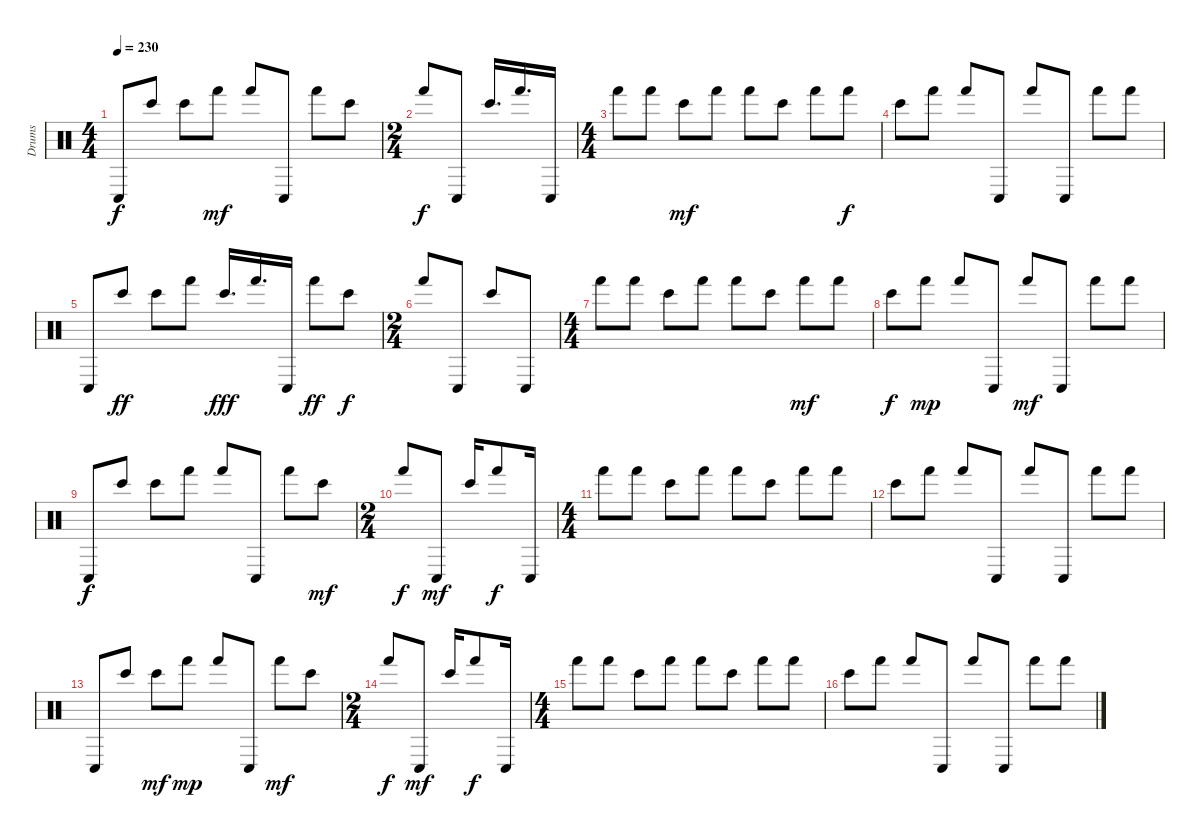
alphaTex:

\track ("Drums" "Drums") {instrument percussion}
\staff {score}
\articulation defaults
\ts (4 4)
\tempo 230
\clef neutral
\ks c "Conga low (hit)".8{dy f} "Bongo High (hit)".8 "Bongo High (hit)".8 "Hand (hit)".8{dy mf} "Hand (hit)".8 "Conga low (hit)".8 "Hand (hit)".8 "Bongo High (hit)".8
|
\ts (2 4)
"Hand (hit)".8{dy f} "Conga low (hit)".8 "Bongo High (hit)".16{d} "Hand (hit)".16{d} "Conga low (hit)".16 |
\ts (4 4)
"Hand (hit)".8 "Hand (hit)".8 "Bongo High (hit)".8{dy mf} "Hand (hit)".8 "Hand (hit)".8 "Bongo High (hit)".8 "Hand (hit)".8 "Hand (hit)".8{dy f} |
"Bongo High (hit)".8 "Hand (hit)".8 "Hand (hit)".8 "Conga low (hit)".8 "Hand (hit)".8 "Conga low (hit)".8 "Hand (hit)".8 "Hand (hit)".8 |
"Conga low (hit)".8 "Bongo High (hit)".8{dy ff} "Bongo High (hit)".8 "Hand (hit)".8 "Bongo High (hit)".16{d dy fff} "Hand (hit)".16{d} "Conga low (hit)".16 "Hand (hit)".8{dy ff} "Bongo High (hit)".8{dy f} |
\ts (2 4)
"Hand (hit)".8 "Conga low (hit)".8 "Bongo High (hit)".8 "Conga low (hit)".8 |
\ts (4 4)
"Hand (hit)".8 "Hand (hit)".8 "Bongo High (hit)".8 "Hand (hit)".8 "Hand (hit)".8 "Bongo High (hit)".8 "Hand (hit)".8{dy mf} "Hand (hit)".8 |
"Bongo High (hit)".8{dy f} "Hand (hit)".8{dy mp} "Hand (hit)".8 "Conga low (hit)".8 "Hand (hit)".8{dy mf} "Conga low (hit)".8 "Hand (hit)".8 "Hand (hit)".8 |
"Conga low (hit)".8{dy f} "Bongo High (hit)".8 "Bongo High (hit)".8 "Hand (hit)".8 "Hand (hit)".8 "Conga low (hit)".8 "Hand (hit)".8 "Bongo High (hit)".8{dy mf} |
\ts (2 4)
"Hand (hit)".8{dy f} "Conga low (hit)".8{dy mf} "Bongo High (hit)".16 "Hand (hit)".8{dy f} "Conga low (hit)".16 |
\ts (4 4)
"Hand (hit)".8 "Hand (hit)".8 "Bongo High (hit)".8 "Hand (hit)".8 "Hand (hit)".8 "Bongo High (hit)".8 "Hand (hit)".8 "Hand (hit)".8 |
"Bongo High (hit)".8 "Hand (hit)".8 "Hand (hit)".8 "Conga low (hit)".8 "Hand (hit)".8 "Conga low (hit)".8 "Hand (hit)".8 "Hand (hit)".8 |
"Conga low (hit)".8 "Bongo High (hit)".8 "Bongo High (hit)".8{dy mf} "Hand (hit)".8{dy mp} "Hand (hit)".8 "Conga low (hit)".8 "Hand (hit)".8{dy mf} "Bongo High (hit)".8 |
\ts (2 4)
"Hand (hit)".8{dy f} "Conga low (hit)".8{dy mf} "Bongo High (hit)".16 "Hand (hit)".8{dy f} "Conga low (hit)".16 |
\ts (4 4)
"Hand (hit)".8 "Hand (hit)".8 "Bongo High (hit)".8 "Hand (hit)".8 "Hand (hit)".8 "Bongo High (hit)".8 "Hand (hit)".8 "Hand (hit)".8 |
"Bongo High (hit)".8 "Hand (hit)".8 "Hand (hit)".8 "Conga low (hit)".8 "Hand (hit)".8 "Conga low (hit)".8 "Hand (hit)".8 "Hand (hit)".8
